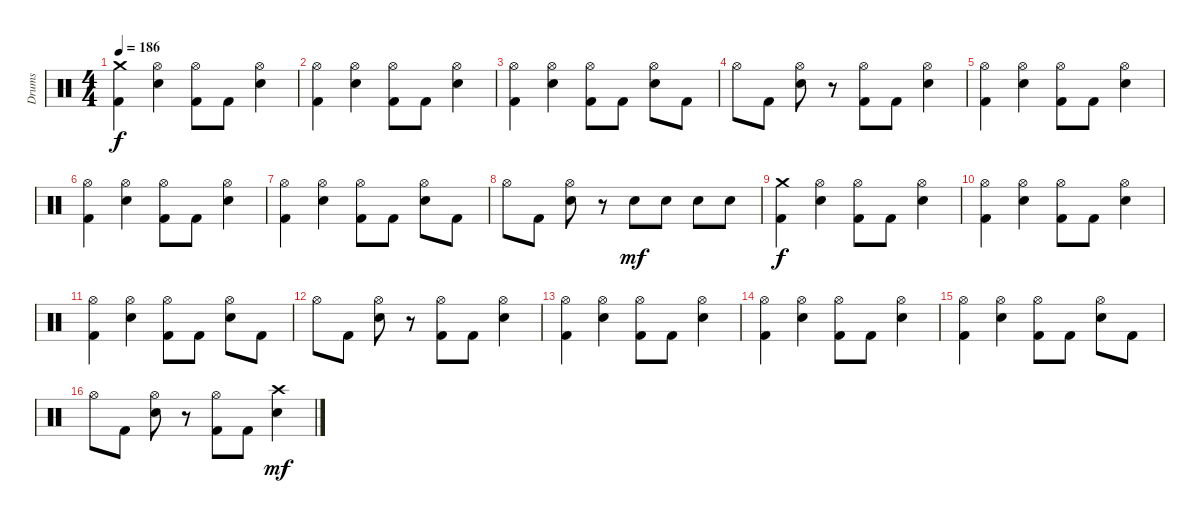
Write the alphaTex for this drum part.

\track ("Drums" "Drums") {instrument percussion}
\staff
\articulation defaults
\ts (4 4)
\tempo 186
\clef neutral
\ks c
("Crash medium (hit)" "Kick (hit) 2").4{dy f} ("Hi-Hat (open)" "Electric Snare (hit)").4 ("Hi-Hat (open)" "Kick (hit) 2").8 "Kick (hit) 2".8 ("Hi-Hat (open)" "Electric Snare (hit)").4 |
("Hi-Hat (open)" "Kick (hit) 2").4 ("Hi-Hat (open)" "Electric Snare (hit)").4 ("Hi-Hat (open)" "Kick (hit) 2").8 "Kick (hit) 2".8 ("Hi-Hat (open)" "Electric Snare (hit)").4 |
("Hi-Hat (open)" "Kick (hit) 2").4 ("Hi-Hat (open)" "Electric Snare (hit)").4 ("Hi-Hat (open)" "Kick (hit) 2").8 "Kick (hit) 2".8 ("Hi-Hat (open)" "Electric Snare (hit)").8 "Kick (hit) 2".8 |
"Hi-Hat (open)".8 "Kick (hit) 2".8 ("Hi-Hat (open)" "Electric Snare (hit)").8 r.8 ("Hi-Hat (open)" "Kick (hit) 2").8 "Kick (hit) 2".8 ("Hi-Hat (open)" "Electric Snare (hit)").4 |
("Hi-Hat (open)" "Kick (hit) 2").4 ("Hi-Hat (open)" "Electric Snare (hit)").4 ("Hi-Hat (open)" "Kick (hit) 2").8 "Kick (hit) 2".8 ("Hi-Hat (open)" "Electric Snare (hit)").4 |
("Hi-Hat (open)" "Kick (hit) 2").4 ("Hi-Hat (open)" "Electric Snare (hit)").4 ("Hi-Hat (open)" "Kick (hit) 2").8 "Kick (hit) 2".8 ("Hi-Hat (open)" "Electric Snare (hit)").4 |
("Hi-Hat (open)" "Kick (hit) 2").4 ("Hi-Hat (open)" "Electric Snare (hit)").4 ("Hi-Hat (open)" "Kick (hit) 2").8 "Kick (hit) 2".8 ("Hi-Hat (open)" "Electric Snare (hit)").8 "Kick (hit) 2".8 |
"Hi-Hat (open)".8 "Kick (hit) 2".8 ("Hi-Hat (open)" "Electric Snare (hit)").8 r.8 "Electric Snare (hit)".8{dy mf} "Electric Snare (hit)".8 "Electric Snare (hit)".8 "Electric Snare (hit)".8 |
("Crash medium (hit)" "Kick (hit) 2").4{dy f} ("Hi-Hat (open)" "Electric Snare (hit)").4 ("Hi-Hat (open)" "Kick (hit) 2").8 "Kick (hit) 2".8 ("Hi-Hat (open)" "Electric Snare (hit)").4 |
("Hi-Hat (open)" "Kick (hit) 2").4 ("Hi-Hat (open)" "Electric Snare (hit)").4 ("Hi-Hat (open)" "Kick (hit) 2").8 "Kick (hit) 2".8 ("Hi-Hat (open)" "Electric Snare (hit)").4 |
("Hi-Hat (open)" "Kick (hit) 2").4 ("Hi-Hat (open)" "Electric Snare (hit)").4 ("Hi-Hat (open)" "Kick (hit) 2").8 "Kick (hit) 2".8 ("Hi-Hat (open)" "Electric Snare (hit)").8 "Kick (hit) 2".8 |
"Hi-Hat (open)".8 "Kick (hit) 2".8 ("Hi-Hat (open)" "Electric Snare (hit)").8 r.8 ("Hi-Hat (open)" "Kick (hit) 2").8 "Kick (hit) 2".8 ("Hi-Hat (open)" "Electric Snare (hit)").4 |
("Hi-Hat (open)" "Kick (hit) 2").4 ("Hi-Hat (open)" "Electric Snare (hit)").4 ("Hi-Hat (open)" "Kick (hit) 2").8 "Kick (hit) 2".8 ("Hi-Hat (open)" "Electric Snare (hit)").4 |
("Hi-Hat (open)" "Kick (hit) 2").4 ("Hi-Hat (open)" "Electric Snare (hit)").4 ("Hi-Hat (open)" "Kick (hit) 2").8 "Kick (hit) 2".8 ("Hi-Hat (open)" "Electric Snare (hit)").4 |
("Hi-Hat (open)" "Kick (hit) 2").4 ("Hi-Hat (open)" "Electric Snare (hit)").4 ("Hi-Hat (open)" "Kick (hit) 2").8 "Kick (hit) 2".8 ("Hi-Hat (open)" "Electric Snare (hit)").8 "Kick (hit) 2".8 |
"Hi-Hat (open)".8 "Kick (hit) 2".8 ("Hi-Hat (open)" "Electric Snare (hit)").8 r.8 ("Hi-Hat (open)" "Kick (hit) 2").8 "Kick (hit) 2".8 ("Crash high (hit)" "Electric Snare (hit)").4{dy mf}
